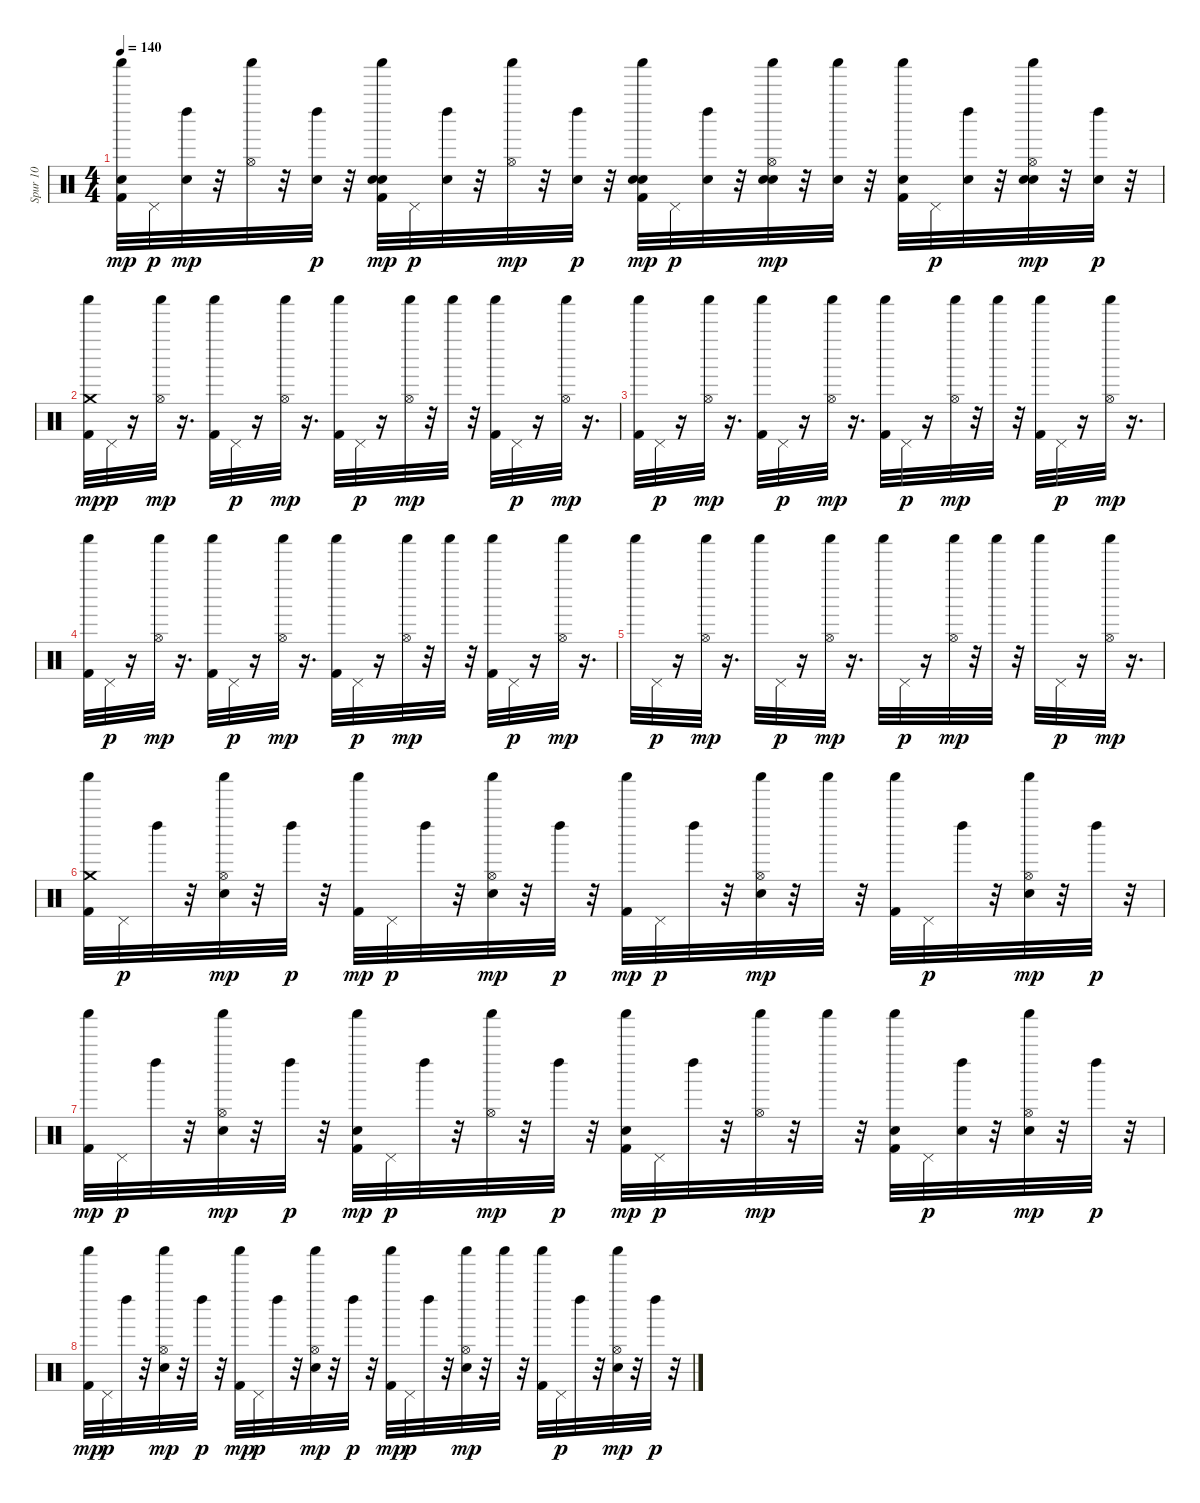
\track ("Spur 10" "Spur 10") {instrument percussion}
\staff {score}
\articulation defaults
\ts (4 4)
\tempo 140
\clef neutral
\ks c
("Kick (hit) 2" "Electric Snare (hit)" "Shaker (hit)").32{dy mp} "Pedal Hi-Hat (hit)".32{dy p} ("Left Maraca (hit)" "Hand Clap (hit)").32{dy mp} r.32 ("Hi-Hat (open)" "Shaker (hit)").32 r.32 ("Hand Clap (hit)" "Left Maraca (hit)").32{dy p} r.32 ("Kick (hit) 2" "Hand Clap (hit)" "Electric Snare (hit)" "Shaker (hit)").32{dy mp} "Pedal Hi-Hat (hit)".32{dy p} ("Hand Clap (hit)" "Left Maraca (hit)").32 r.32 ("Hi-Hat (open)" "Shaker (hit)").32{dy mp} r.32 ("Hand Clap (hit)" "Left Maraca (hit)").32{dy p} r.32 ("Kick (hit) 2" "Hand Clap (hit)" "Electric Snare (hit)" "Shaker (hit)").32{dy mp} "Pedal Hi-Hat (hit)".32{dy p} ("Hand Clap (hit)" "Left Maraca (hit)").32 r.32 ("Hand Clap (hit)" "Electric Snare (hit)" "Hi-Hat (open)" "Shaker (hit)").32{dy mp} r.32 ("Hand Clap (hit)" "Shaker (hit)").32 r.32 ("Kick (hit) 2" "Hand Clap (hit)" "Shaker (hit)").32 "Pedal Hi-Hat (hit)".32{dy p} ("Hand Clap (hit)" "Left Maraca (hit)").32 r.32 ("Hand Clap (hit)" "Electric Snare (hit)" "Hi-Hat (open)" "Shaker (hit)").32{dy mp} r.32 ("Hand Clap (hit)" "Left Maraca (hit)").32{dy p} r.32 |
("Kick (hit) 2" "Shaker (hit)" "Crash medium (hit)").32{dy mp} "Pedal Hi-Hat (hit)".32{dy p} r.16 ("Hi-Hat (open)" "Shaker (hit)").32{dy mp} r.16{d} ("Kick (hit) 2" "Shaker (hit)").32 "Pedal Hi-Hat (hit)".32{dy p} r.16 ("Hi-Hat (open)" "Shaker (hit)").32{dy mp} r.16{d} ("Kick (hit) 2" "Shaker (hit)").32 "Pedal Hi-Hat (hit)".32{dy p} r.16 ("Hi-Hat (open)" "Shaker (hit)").32{dy mp} r.32 "Shaker (hit)".32 r.32 ("Kick (hit) 2" "Shaker (hit)").32 "Pedal Hi-Hat (hit)".32{dy p} r.16 ("Hi-Hat (open)" "Shaker (hit)").32{dy mp} r.16{d} |
("Kick (hit) 2" "Shaker (hit)").32 "Pedal Hi-Hat (hit)".32{dy p} r.16 ("Hi-Hat (open)" "Shaker (hit)").32{dy mp} r.16{d} ("Kick (hit) 2" "Shaker (hit)").32 "Pedal Hi-Hat (hit)".32{dy p} r.16 ("Hi-Hat (open)" "Shaker (hit)").32{dy mp} r.16{d} ("Kick (hit) 2" "Shaker (hit)").32 "Pedal Hi-Hat (hit)".32{dy p} r.16 ("Hi-Hat (open)" "Shaker (hit)").32{dy mp} r.32 "Shaker (hit)".32 r.32 ("Kick (hit) 2" "Shaker (hit)").32 "Pedal Hi-Hat (hit)".32{dy p} r.16 ("Hi-Hat (open)" "Shaker (hit)").32{dy mp} r.16{d} |
("Kick (hit) 2" "Shaker (hit)").32 "Pedal Hi-Hat (hit)".32{dy p} r.16 ("Hi-Hat (open)" "Shaker (hit)").32{dy mp} r.16{d} ("Kick (hit) 2" "Shaker (hit)").32 "Pedal Hi-Hat (hit)".32{dy p} r.16 ("Hi-Hat (open)" "Shaker (hit)").32{dy mp} r.16{d} ("Kick (hit) 2" "Shaker (hit)").32 "Pedal Hi-Hat (hit)".32{dy p} r.16 ("Hi-Hat (open)" "Shaker (hit)").32{dy mp} r.32 "Shaker (hit)".32 r.32 ("Kick (hit) 2" "Shaker (hit)").32 "Pedal Hi-Hat (hit)".32{dy p} r.16 ("Hi-Hat (open)" "Shaker (hit)").32{dy mp} r.16{d} |
"Shaker (hit)".32 "Pedal Hi-Hat (hit)".32{dy p} r.16 ("Hi-Hat (open)" "Shaker (hit)").32{dy mp} r.16{d} "Shaker (hit)".32 "Pedal Hi-Hat (hit)".32{dy p} r.16 ("Hi-Hat (open)" "Shaker (hit)").32{dy mp} r.16{d} "Shaker (hit)".32 "Pedal Hi-Hat (hit)".32{dy p} r.16 ("Hi-Hat (open)" "Shaker (hit)").32{dy mp} r.32 "Shaker (hit)".32 r.32 "Shaker (hit)".32 "Pedal Hi-Hat (hit)".32{dy p} r.16 ("Hi-Hat (open)" "Shaker (hit)").32{dy mp} r.16{d} |
("Kick (hit) 2" "Shaker (hit)" "Crash medium (hit)").32 "Pedal Hi-Hat (hit)".32{dy p} "Left Maraca (hit)".32 r.32 ("Hand Clap (hit)" "Hi-Hat (open)" "Shaker (hit)").32{dy mp} r.32 "Left Maraca (hit)".32{dy p} r.32 ("Kick (hit) 2" "Shaker (hit)").32{dy mp} "Pedal Hi-Hat (hit)".32{dy p} "Left Maraca (hit)".32 r.32 ("Hand Clap (hit)" "Hi-Hat (open)" "Shaker (hit)").32{dy mp} r.32 "Left Maraca (hit)".32{dy p} r.32 ("Kick (hit) 2" "Shaker (hit)").32{dy mp} "Pedal Hi-Hat (hit)".32{dy p} "Left Maraca (hit)".32 r.32 ("Hand Clap (hit)" "Hi-Hat (open)" "Shaker (hit)").32{dy mp} r.32 "Shaker (hit)".32 r.32 ("Kick (hit) 2" "Shaker (hit)").32 "Pedal Hi-Hat (hit)".32{dy p} "Left Maraca (hit)".32 r.32 ("Hand Clap (hit)" "Hi-Hat (open)" "Shaker (hit)").32{dy mp} r.32 "Left Maraca (hit)".32{dy p} r.32 |
("Kick (hit) 2" "Shaker (hit)").32{dy mp} "Pedal Hi-Hat (hit)".32{dy p} "Left Maraca (hit)".32 r.32 ("Hand Clap (hit)" "Hi-Hat (open)" "Shaker (hit)").32{dy mp} r.32 "Left Maraca (hit)".32{dy p} r.32 ("Kick (hit) 2" "Hand Clap (hit)" "Shaker (hit)").32{dy mp} "Pedal Hi-Hat (hit)".32{dy p} "Left Maraca (hit)".32 r.32 ("Hi-Hat (open)" "Shaker (hit)").32{dy mp} r.32 "Left Maraca (hit)".32{dy p} r.32 ("Kick (hit) 2" "Hand Clap (hit)" "Shaker (hit)").32{dy mp} "Pedal Hi-Hat (hit)".32{dy p} "Left Maraca (hit)".32 r.32 ("Hi-Hat (open)" "Shaker (hit)").32{dy mp} r.32 "Shaker (hit)".32 r.32 ("Kick (hit) 2" "Hand Clap (hit)" "Shaker (hit)").32 "Pedal Hi-Hat (hit)".32{dy p} ("Hand Clap (hit)" "Left Maraca (hit)").32 r.32 ("Hand Clap (hit)" "Hi-Hat (open)" "Shaker (hit)").32{dy mp} r.32 "Left Maraca (hit)".32{dy p} r.32 |
("Kick (hit) 2" "Shaker (hit)").32{dy mp} "Pedal Hi-Hat (hit)".32{dy p} "Left Maraca (hit)".32 r.32 ("Hand Clap (hit)" "Hi-Hat (open)" "Shaker (hit)").32{dy mp} r.32 "Left Maraca (hit)".32{dy p} r.32 ("Kick (hit) 2" "Shaker (hit)").32{dy mp} "Pedal Hi-Hat (hit)".32{dy p} "Left Maraca (hit)".32 r.32 ("Hand Clap (hit)" "Hi-Hat (open)" "Shaker (hit)").32{dy mp} r.32 "Left Maraca (hit)".32{dy p} r.32 ("Kick (hit) 2" "Shaker (hit)").32{dy mp} "Pedal Hi-Hat (hit)".32{dy p} "Left Maraca (hit)".32 r.32 ("Hand Clap (hit)" "Hi-Hat (open)" "Shaker (hit)").32{dy mp} r.32 "Shaker (hit)".32 r.32 ("Kick (hit) 2" "Shaker (hit)").32 "Pedal Hi-Hat (hit)".32{dy p} "Left Maraca (hit)".32 r.32 ("Hand Clap (hit)" "Hi-Hat (open)" "Shaker (hit)").32{dy mp} r.32 "Left Maraca (hit)".32{dy p} r.32
